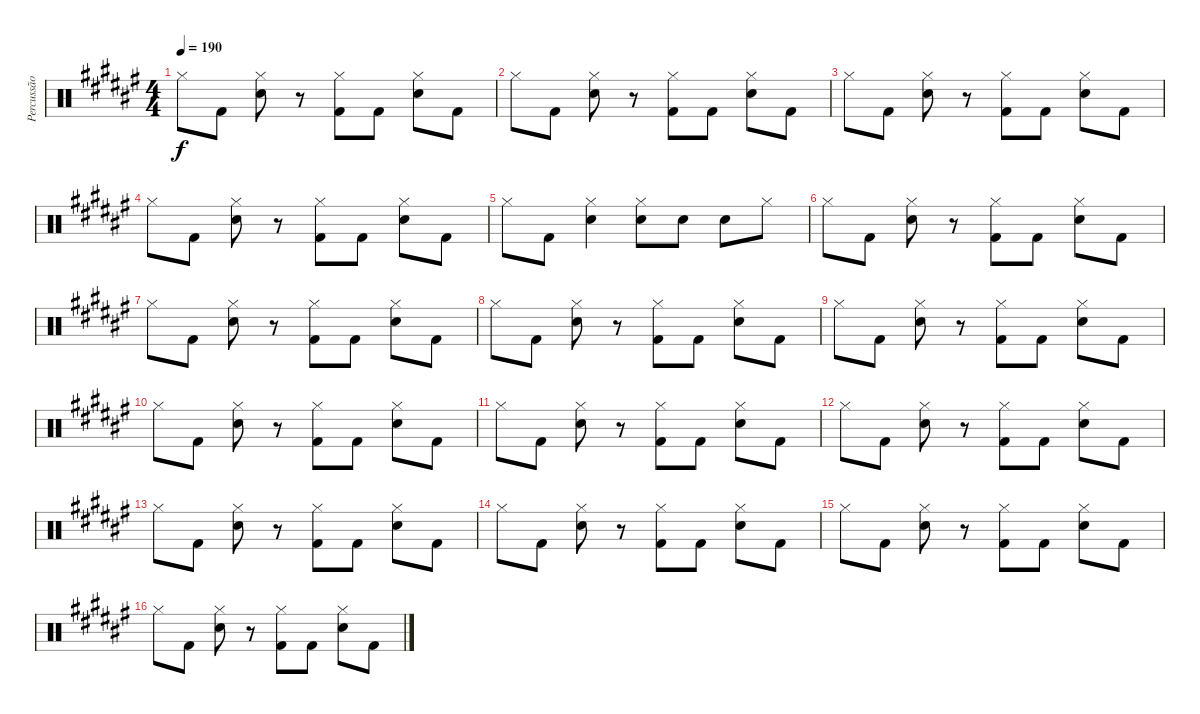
\track ("Percussão" "Percussão") {instrument percussion}
\staff {score}
\articulation defaults
\ts (4 4)
\tempo 190
\clef neutral
\ks d#minor "Hi-Hat (closed)".8{dy f} "Kick (hit) 2".8
("Hi-Hat (closed)" "Snare (hit) 2").8 r.8 ("Hi-Hat (closed)" "Kick (hit) 2").8 "Kick (hit) 2".8 ("Hi-Hat (closed)" "Snare (hit) 2").8 "Kick (hit) 2".8 |
"Hi-Hat (closed)".8 "Kick (hit) 2".8 ("Hi-Hat (closed)" "Snare (hit) 2").8 r.8 ("Hi-Hat (closed)" "Kick (hit) 2").8 "Kick (hit) 2".8 ("Hi-Hat (closed)" "Snare (hit) 2").8 "Kick (hit) 2".8 |
"Hi-Hat (closed)".8 "Kick (hit) 2".8 ("Hi-Hat (closed)" "Snare (hit) 2").8 r.8 ("Hi-Hat (closed)" "Kick (hit) 2").8 "Kick (hit) 2".8 ("Hi-Hat (closed)" "Snare (hit) 2").8 "Kick (hit) 2".8 |
"Hi-Hat (closed)".8 "Kick (hit) 2".8 ("Hi-Hat (closed)" "Snare (hit) 2").8 r.8 ("Hi-Hat (closed)" "Kick (hit) 2").8 "Kick (hit) 2".8 ("Hi-Hat (closed)" "Snare (hit) 2").8 "Kick (hit) 2".8 |
"Hi-Hat (closed)".8 "Kick (hit) 2".8 ("Hi-Hat (closed)" "Snare (hit) 2").4 ("Hi-Hat (closed)" "Snare (hit) 2").8 "Snare (hit) 2".8 "Snare (hit) 2".8 "Hi-Hat (closed)".8 |
"Hi-Hat (closed)".8 "Kick (hit) 2".8 ("Hi-Hat (closed)" "Snare (hit) 2").8 r.8 ("Hi-Hat (closed)" "Kick (hit) 2").8 "Kick (hit) 2".8 ("Hi-Hat (closed)" "Snare (hit) 2").8 "Kick (hit) 2".8 |
"Hi-Hat (closed)".8 "Kick (hit) 2".8 ("Hi-Hat (closed)" "Snare (hit) 2").8 r.8 ("Hi-Hat (closed)" "Kick (hit) 2").8 "Kick (hit) 2".8 ("Hi-Hat (closed)" "Snare (hit) 2").8 "Kick (hit) 2".8 |
"Hi-Hat (closed)".8 "Kick (hit) 2".8 ("Hi-Hat (closed)" "Snare (hit) 2").8 r.8 ("Hi-Hat (closed)" "Kick (hit) 2").8 "Kick (hit) 2".8 ("Hi-Hat (closed)" "Snare (hit) 2").8 "Kick (hit) 2".8 |
"Hi-Hat (closed)".8 "Kick (hit) 2".8 ("Hi-Hat (closed)" "Snare (hit) 2").8 r.8 ("Hi-Hat (closed)" "Kick (hit) 2").8 "Kick (hit) 2".8 ("Hi-Hat (closed)" "Snare (hit) 2").8 "Kick (hit) 2".8 |
"Hi-Hat (closed)".8 "Kick (hit) 2".8 ("Hi-Hat (closed)" "Snare (hit) 2").8 r.8 ("Hi-Hat (closed)" "Kick (hit) 2").8 "Kick (hit) 2".8 ("Hi-Hat (closed)" "Snare (hit) 2").8 "Kick (hit) 2".8 |
"Hi-Hat (closed)".8 "Kick (hit) 2".8 ("Hi-Hat (closed)" "Snare (hit) 2").8 r.8 ("Hi-Hat (closed)" "Kick (hit) 2").8 "Kick (hit) 2".8 ("Hi-Hat (closed)" "Snare (hit) 2").8 "Kick (hit) 2".8 |
"Hi-Hat (closed)".8 "Kick (hit) 2".8 ("Hi-Hat (closed)" "Snare (hit) 2").8 r.8 ("Hi-Hat (closed)" "Kick (hit) 2").8 "Kick (hit) 2".8 ("Hi-Hat (closed)" "Snare (hit) 2").8 "Kick (hit) 2".8 |
"Hi-Hat (closed)".8 "Kick (hit) 2".8 ("Hi-Hat (closed)" "Snare (hit) 2").8 r.8 ("Hi-Hat (closed)" "Kick (hit) 2").8 "Kick (hit) 2".8 ("Hi-Hat (closed)" "Snare (hit) 2").8 "Kick (hit) 2".8 |
"Hi-Hat (closed)".8 "Kick (hit) 2".8 ("Hi-Hat (closed)" "Snare (hit) 2").8 r.8 ("Hi-Hat (closed)" "Kick (hit) 2").8 "Kick (hit) 2".8 ("Hi-Hat (closed)" "Snare (hit) 2").8 "Kick (hit) 2".8 |
"Hi-Hat (closed)".8 "Kick (hit) 2".8 ("Hi-Hat (closed)" "Snare (hit) 2").8 r.8 ("Hi-Hat (closed)" "Kick (hit) 2").8 "Kick (hit) 2".8 ("Hi-Hat (closed)" "Snare (hit) 2").8 "Kick (hit) 2".8 |
"Hi-Hat (closed)".8 "Kick (hit) 2".8 ("Hi-Hat (closed)" "Snare (hit) 2").8 r.8 ("Hi-Hat (closed)" "Kick (hit) 2").8 "Kick (hit) 2".8 ("Hi-Hat (closed)" "Snare (hit) 2").8 "Kick (hit) 2".8
